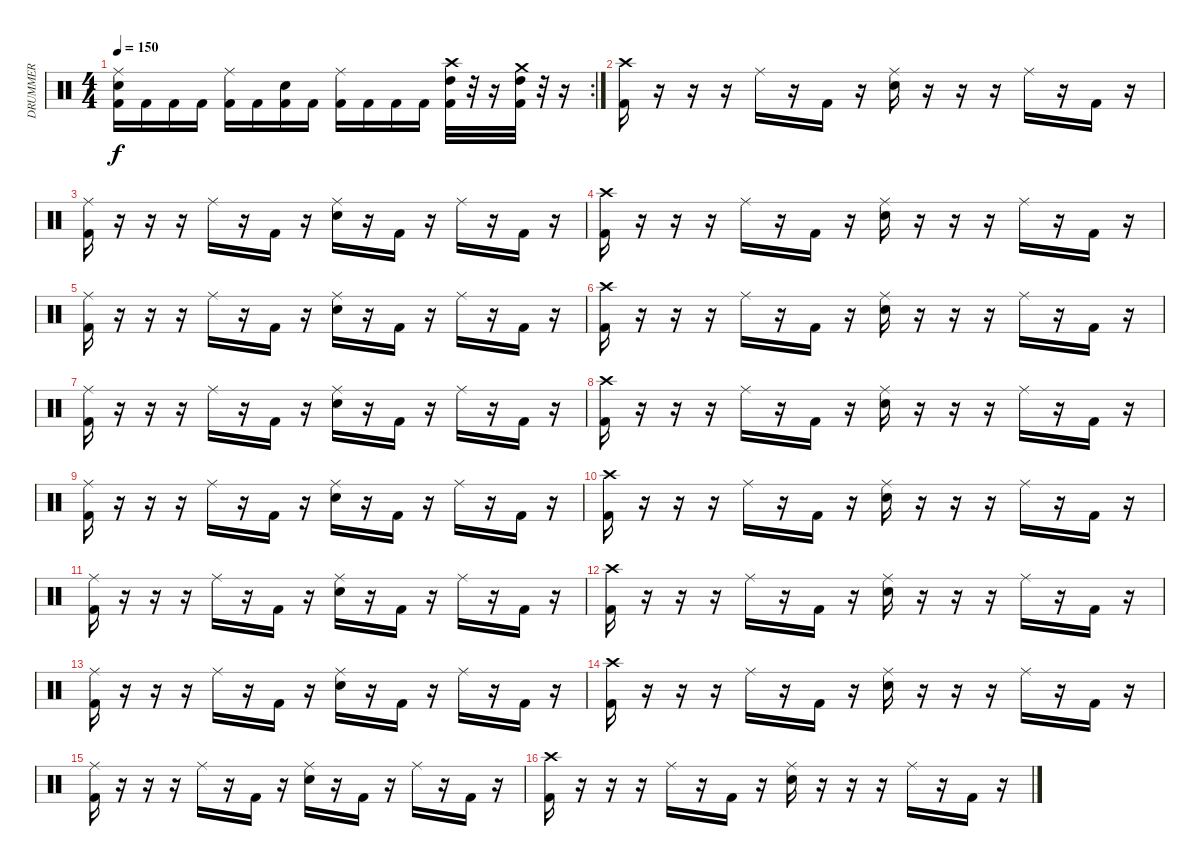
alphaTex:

\track ("DRUMMER" "DRUMMER") {instrument percussion}
\staff {score}
\articulation defaults
\rc 2
\ts (4 4)
\tempo 150
\clef neutral
\ks c
("Ride (middle)" "Electric Snare (hit)" "Kick (hit) 2").16{dy f} "Kick (hit) 2".16 "Kick (hit) 2".16 "Kick (hit) 2".16 ("Ride (middle)" "Kick (hit) 2").16 "Kick (hit) 2".16 ("Electric Snare (hit)" "Kick (hit) 2").16 "Kick (hit) 2".16 ("Ride (middle)" "Kick (hit) 2").16 "Kick (hit) 2".16 "Kick (hit) 2".16 "Kick (hit) 2".16 ("Crash high (hit)" "High Tom (hit)" "Kick (hit) 2").32 r.32 r.16 ("Crash medium (hit)" "High Tom (hit)" "Kick (hit) 2").32 r.32 r.16 |
("Crash high (hit)" "Kick (hit) 2").16 r.16 r.16 r.16 "Ride (middle)".16 r.16 "Kick (hit) 2".16 r.16 ("Ride (middle)" "Electric Snare (hit)").16 r.16 r.16 r.16 "Ride (middle)".16 r.16 "Kick (hit) 2".16 r.16 |
("Ride (middle)" "Kick (hit) 2").16 r.16 r.16 r.16 "Ride (middle)".16 r.16 "Kick (hit) 2".16 r.16 ("Ride (middle)" "Electric Snare (hit)").16 r.16 "Kick (hit) 2".16 r.16 "Ride (middle)".16 r.16 "Kick (hit) 2".16 r.16 |
("Crash high (hit)" "Kick (hit) 2").16 r.16 r.16 r.16 "Ride (middle)".16 r.16 "Kick (hit) 2".16 r.16 ("Ride (middle)" "Electric Snare (hit)").16 r.16 r.16 r.16 "Ride (middle)".16 r.16 "Kick (hit) 2".16 r.16 |
("Ride (middle)" "Kick (hit) 2").16 r.16 r.16 r.16 "Ride (middle)".16 r.16 "Kick (hit) 2".16 r.16 ("Ride (middle)" "Electric Snare (hit)").16 r.16 "Kick (hit) 2".16 r.16 "Ride (middle)".16 r.16 "Kick (hit) 2".16 r.16 |
("Crash high (hit)" "Kick (hit) 2").16 r.16 r.16 r.16 "Ride (middle)".16 r.16 "Kick (hit) 2".16 r.16 ("Ride (middle)" "Electric Snare (hit)").16 r.16 r.16 r.16 "Ride (middle)".16 r.16 "Kick (hit) 2".16 r.16 |
("Ride (middle)" "Kick (hit) 2").16 r.16 r.16 r.16 "Ride (middle)".16 r.16 "Kick (hit) 2".16 r.16 ("Ride (middle)" "Electric Snare (hit)").16 r.16 "Kick (hit) 2".16 r.16 "Ride (middle)".16 r.16 "Kick (hit) 2".16 r.16 |
("Crash high (hit)" "Kick (hit) 2").16 r.16 r.16 r.16 "Ride (middle)".16 r.16 "Kick (hit) 2".16 r.16 ("Ride (middle)" "Electric Snare (hit)").16 r.16 r.16 r.16 "Ride (middle)".16 r.16 "Kick (hit) 2".16 r.16 |
("Ride (middle)" "Kick (hit) 2").16 r.16 r.16 r.16 "Ride (middle)".16 r.16 "Kick (hit) 2".16 r.16 ("Ride (middle)" "Electric Snare (hit)").16 r.16 "Kick (hit) 2".16 r.16 "Ride (middle)".16 r.16 "Kick (hit) 2".16 r.16 |
("Crash high (hit)" "Kick (hit) 2").16 r.16 r.16 r.16 "Ride (middle)".16 r.16 "Kick (hit) 2".16 r.16 ("Ride (middle)" "Electric Snare (hit)").16 r.16 r.16 r.16 "Ride (middle)".16 r.16 "Kick (hit) 2".16 r.16 |
("Ride (middle)" "Kick (hit) 2").16 r.16 r.16 r.16 "Ride (middle)".16 r.16 "Kick (hit) 2".16 r.16 ("Ride (middle)" "Electric Snare (hit)").16 r.16 "Kick (hit) 2".16 r.16 "Ride (middle)".16 r.16 "Kick (hit) 2".16 r.16 |
("Crash high (hit)" "Kick (hit) 2").16 r.16 r.16 r.16 "Ride (middle)".16 r.16 "Kick (hit) 2".16 r.16 ("Ride (middle)" "Electric Snare (hit)").16 r.16 r.16 r.16 "Ride (middle)".16 r.16 "Kick (hit) 2".16 r.16 |
("Ride (middle)" "Kick (hit) 2").16 r.16 r.16 r.16 "Ride (middle)".16 r.16 "Kick (hit) 2".16 r.16 ("Ride (middle)" "Electric Snare (hit)").16 r.16 "Kick (hit) 2".16 r.16 "Ride (middle)".16 r.16 "Kick (hit) 2".16 r.16 |
("Crash high (hit)" "Kick (hit) 2").16 r.16 r.16 r.16 "Ride (middle)".16 r.16 "Kick (hit) 2".16 r.16 ("Ride (middle)" "Electric Snare (hit)").16 r.16 r.16 r.16 "Ride (middle)".16 r.16 "Kick (hit) 2".16 r.16 |
("Ride (middle)" "Kick (hit) 2").16 r.16 r.16 r.16 "Ride (middle)".16 r.16 "Kick (hit) 2".16 r.16 ("Ride (middle)" "Electric Snare (hit)").16 r.16 "Kick (hit) 2".16 r.16 "Ride (middle)".16 r.16 "Kick (hit) 2".16 r.16 |
("Crash high (hit)" "Kick (hit) 2").16 r.16 r.16 r.16 "Ride (middle)".16 r.16 "Kick (hit) 2".16 r.16 ("Ride (middle)" "Electric Snare (hit)").16 r.16 r.16 r.16 "Ride (middle)".16 r.16 "Kick (hit) 2".16 r.16
